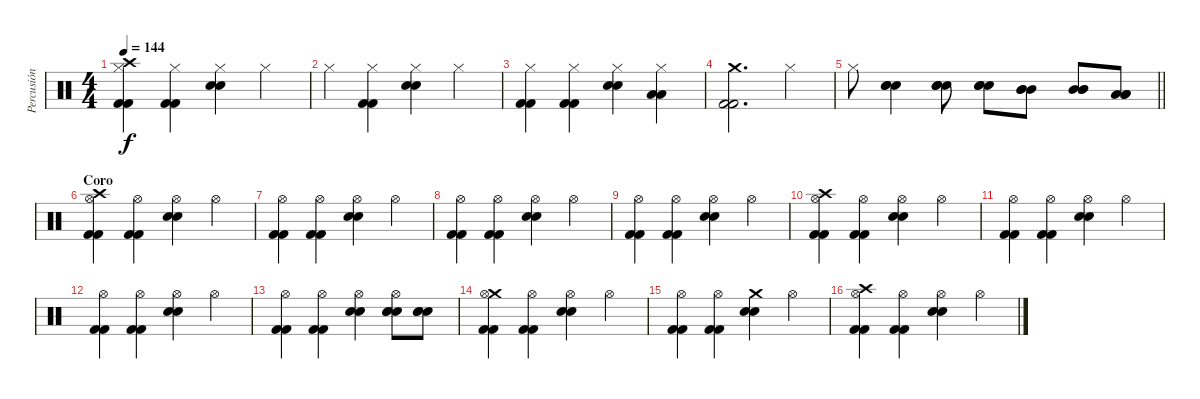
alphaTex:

\track ("Percusión" "Percusión") {instrument percussion}
\staff {score}
\articulation defaults
\ts (4 4)
\tempo 144
\clef neutral
\ks c
("Crash high (hit)" "Hi-Hat (closed)" "Kick (hit) 2" "Kick (hit) 2").4{dy f} ("Hi-Hat (closed)" "Kick (hit) 2" "Kick (hit) 2").4 ("Hi-Hat (closed)" "Electric Snare (hit)" "Electric Snare (hit)").4 "Hi-Hat (closed)".4 |
"Hi-Hat (closed)".4 ("Hi-Hat (closed)" "Kick (hit) 2" "Kick (hit) 2").4 ("Hi-Hat (closed)" "Electric Snare (hit)" "Electric Snare (hit)").4 "Hi-Hat (closed)".4 |
("Hi-Hat (closed)" "Kick (hit) 2" "Kick (hit) 2").4 ("Hi-Hat (closed)" "Kick (hit) 2" "Kick (hit) 2").4 ("Hi-Hat (closed)" "Electric Snare (hit)" "Electric Snare (hit)").4 ("Hi-Hat (closed)" "Low Tom (hit)" "Low Tom (hit)").4 |
("Crash medium (hit)" "Kick (hit) 2" "Kick (hit) 2").2{d} "Hi-Hat (closed)".4 |
\barLineRight lightlight "Hi-Hat (closed)".8
("Electric Snare (hit)" "Electric Snare (hit)" "Electric Snare (hit)").4 ("Electric Snare (hit)" "Electric Snare (hit)" "Electric Snare (hit)").8 ("Electric Snare (hit)" "Electric Snare (hit)" "Electric Snare (hit)").8 ("Mid Tom (hit)" "Mid Tom (hit)" "Mid Tom (hit)").8 ("Mid Tom (hit)" "Mid Tom (hit)" "Mid Tom (hit)").8 ("Low Tom (hit)" "Low Tom (hit)" "Low Tom (hit)").8 |
\section ("" "Coro")
("Crash high (hit)" "Hi-Hat (open)" "Kick (hit) 2" "Kick (hit) 2").4 ("Hi-Hat (open)" "Kick (hit) 2" "Kick (hit) 2").4 ("Hi-Hat (open)" "Electric Snare (hit)" "Electric Snare (hit)").4 "Hi-Hat (open)".4 |
("Hi-Hat (open)" "Kick (hit) 2" "Kick (hit) 2").4 ("Hi-Hat (open)" "Kick (hit) 2" "Kick (hit) 2").4 ("Hi-Hat (open)" "Electric Snare (hit)" "Electric Snare (hit)").4 "Hi-Hat (open)".4 |
("Hi-Hat (open)" "Kick (hit) 2" "Kick (hit) 2").4 ("Hi-Hat (open)" "Kick (hit) 2" "Kick (hit) 2").4 ("Hi-Hat (open)" "Electric Snare (hit)" "Electric Snare (hit)").4 "Hi-Hat (open)".4 |
("Hi-Hat (open)" "Kick (hit) 2" "Kick (hit) 2").4 ("Hi-Hat (open)" "Kick (hit) 2" "Kick (hit) 2").4 ("Hi-Hat (open)" "Electric Snare (hit)" "Electric Snare (hit)").4 "Hi-Hat (open)".4 |
("Crash high (hit)" "Hi-Hat (open)" "Kick (hit) 2" "Kick (hit) 2").4 ("Hi-Hat (open)" "Kick (hit) 2" "Kick (hit) 2").4 ("Hi-Hat (open)" "Electric Snare (hit)" "Electric Snare (hit)").4 "Hi-Hat (open)".4 |
("Hi-Hat (open)" "Kick (hit) 2" "Kick (hit) 2").4 ("Hi-Hat (open)" "Kick (hit) 2" "Kick (hit) 2").4 ("Hi-Hat (open)" "Electric Snare (hit)" "Electric Snare (hit)").4 "Hi-Hat (open)".4 |
("Hi-Hat (open)" "Kick (hit) 2" "Kick (hit) 2").4 ("Hi-Hat (open)" "Kick (hit) 2" "Kick (hit) 2").4 ("Hi-Hat (open)" "Electric Snare (hit)" "Electric Snare (hit)").4 "Hi-Hat (open)".4 |
("Hi-Hat (open)" "Kick (hit) 2" "Kick (hit) 2").4 ("Hi-Hat (open)" "Kick (hit) 2" "Kick (hit) 2").4 ("Hi-Hat (open)" "Electric Snare (hit)" "Electric Snare (hit)").4 ("Hi-Hat (open)" "Electric Snare (hit)" "Electric Snare (hit)" "Electric Snare (hit)").8 ("Electric Snare (hit)" "Electric Snare (hit)" "Electric Snare (hit)").8 |
("Crash medium (hit)" "Hi-Hat (open)" "Kick (hit) 2" "Kick (hit) 2").4 ("Hi-Hat (open)" "Kick (hit) 2" "Kick (hit) 2").4 ("Hi-Hat (open)" "Electric Snare (hit)" "Electric Snare (hit)").4 "Hi-Hat (open)".4 |
("Hi-Hat (open)" "Kick (hit) 2" "Kick (hit) 2").4 ("Hi-Hat (open)" "Kick (hit) 2" "Kick (hit) 2").4 ("Crash medium (hit)" "Electric Snare (hit)" "Electric Snare (hit)").4 "Hi-Hat (open)".4 |
("Crash high (hit)" "Hi-Hat (open)" "Kick (hit) 2" "Kick (hit) 2").4 ("Hi-Hat (open)" "Kick (hit) 2" "Kick (hit) 2").4 ("Hi-Hat (open)" "Electric Snare (hit)" "Electric Snare (hit)").4 "Hi-Hat (open)".4
